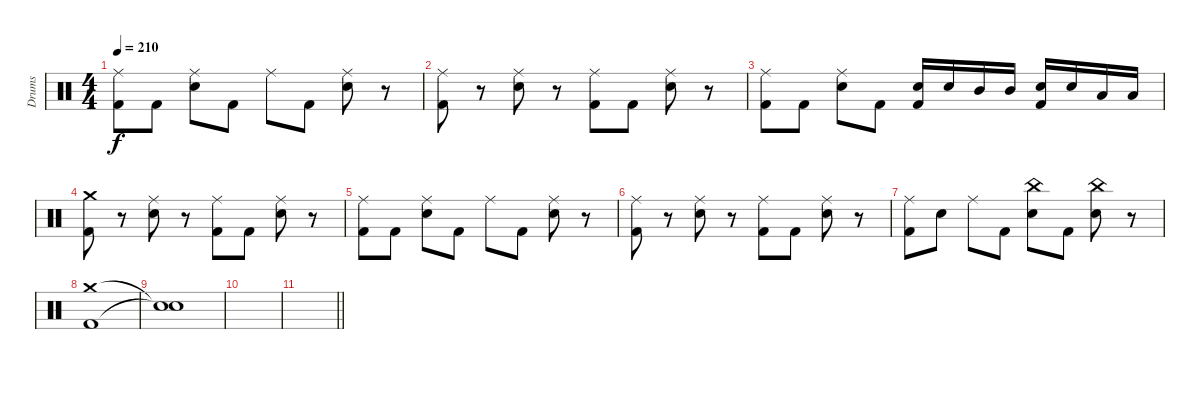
\track ("Drums" "Drums") {instrument percussion}
\staff {score}
\articulation defaults
\ts (4 4)
\tempo 210
\clef neutral
\ks c
("Ride (middle)" "Kick (hit) 2").8{dy f} "Kick (hit) 2".8 ("Ride (middle)" "Electric Snare (hit)").8 "Kick (hit) 2".8 "Ride (middle)".8 "Kick (hit) 2".8 ("Ride (middle)" "Electric Snare (hit)").8 r.8 |
("Ride (middle)" "Kick (hit) 2").8 r.8 ("Ride (middle)" "Electric Snare (hit)").8 r.8 ("Ride (middle)" "Kick (hit) 2").8 "Kick (hit) 2".8 ("Ride (middle)" "Electric Snare (hit)").8 r.8 |
("Ride (middle)" "Kick (hit) 2").8 "Kick (hit) 2".8 ("Ride (middle)" "Electric Snare (hit)").8 "Kick (hit) 2".8 ("Electric Snare (hit)" "Kick (hit) 2").16 "Electric Snare (hit)".16 "Mid Tom (hit)".16 "Mid Tom (hit)".16 ("Electric Snare (hit)" "Kick (hit) 2").16 "Electric Snare (hit)".16 "Low Tom (hit)".16 "Low Tom (hit)".16 |
("Crash medium (hit)" "Kick (hit) 2").8 r.8 ("Ride (middle)" "Electric Snare (hit)").8 r.8 ("Ride (middle)" "Kick (hit) 2").8 "Kick (hit) 2".8 ("Ride (middle)" "Electric Snare (hit)").8 r.8 |
("Ride (middle)" "Kick (hit) 2").8 "Kick (hit) 2".8 ("Ride (middle)" "Electric Snare (hit)").8 "Kick (hit) 2".8 "Ride (middle)".8 "Kick (hit) 2".8 ("Ride (middle)" "Electric Snare (hit)").8 r.8 |
("Ride (middle)" "Kick (hit) 2").8 r.8 ("Ride (middle)" "Electric Snare (hit)").8 r.8 ("Ride (middle)" "Kick (hit) 2").8 "Kick (hit) 2".8 ("Ride (middle)" "Electric Snare (hit)").8 r.8 |
("Ride (middle)" "Kick (hit) 2").8 "Electric Snare (hit)".8 "Ride (middle)".8 "Kick (hit) 2".8 ("China (hit)" "Electric Snare (hit)").8 "Kick (hit) 2".8 ("China (hit)" "Electric Snare (hit)").8 r.8 |
("Crash medium (hit)" "Kick (hit) 2").1 |
("Snare (hit)"{t} "Snare (hit)"{t}).1 |
|
\barLineRight lightlight
